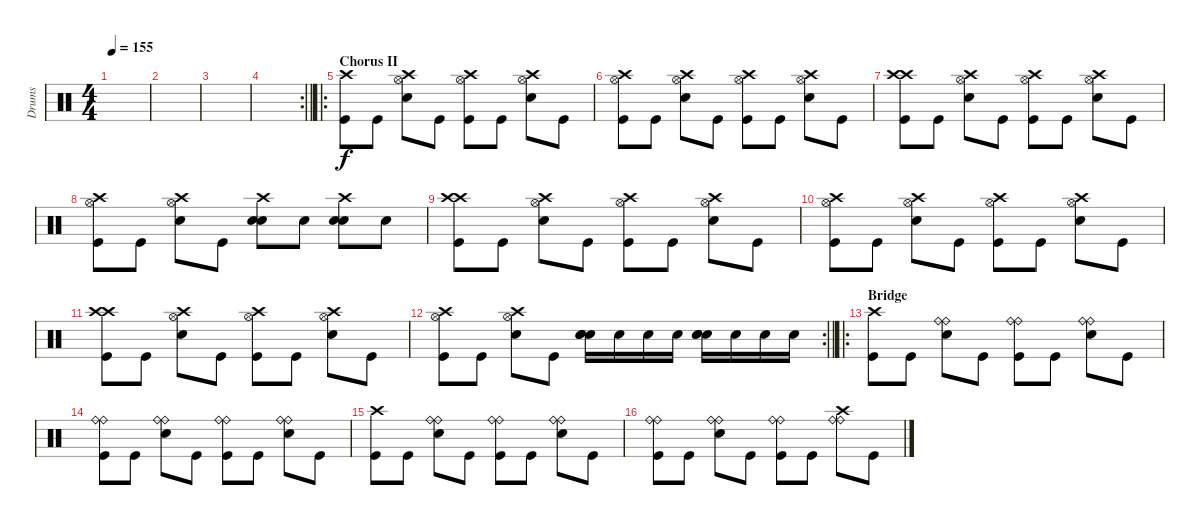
\track ("Drums" "Drums") {instrument percussion}
\staff {score}
\articulation defaults
\ts (4 4)
\tempo 155
\clef neutral
\ks c
|
|
|
\rc 2
\barLineRight lightlight
|
\ro
\section ("" "Chorus II")
("Crash high (hit)" "Kick (hit)").8 "Kick (hit)".8 ("Electric Snare (hit)" "Hi-Hat (open)" "Crash high (hit)").8 "Kick (hit)".8 ("Kick (hit)" "Hi-Hat (open)" "Crash high (hit)").8 "Kick (hit)".8 ("Electric Snare (hit)" "Hi-Hat (open)" "Crash high (hit)").8 "Kick (hit)".8 |
("Kick (hit)" "Hi-Hat (open)" "Crash high (hit)").8 "Kick (hit)".8 ("Electric Snare (hit)" "Hi-Hat (open)" "Crash high (hit)").8 "Kick (hit)".8 ("Kick (hit)" "Hi-Hat (open)" "Crash high (hit)").8 "Kick (hit)".8 ("Electric Snare (hit)" "Hi-Hat (open)" "Crash high (hit)").8 "Kick (hit)".8 |
("Crash high (hit)" "Kick (hit)" "Crash high (hit)").8 "Kick (hit)".8 ("Electric Snare (hit)" "Hi-Hat (open)" "Crash high (hit)").8 "Kick (hit)".8 ("Kick (hit)" "Hi-Hat (open)" "Crash high (hit)").8 "Kick (hit)".8 ("Electric Snare (hit)" "Hi-Hat (open)" "Crash high (hit)").8 "Kick (hit)".8 |
("Kick (hit)" "Hi-Hat (open)" "Crash high (hit)").8 "Kick (hit)".8 ("Electric Snare (hit)" "Hi-Hat (open)" "Crash high (hit)").8 "Kick (hit)".8 ("Electric Snare (hit)" "Electric Snare (hit)" "Crash high (hit)").8 "Electric Snare (hit)".8 ("Electric Snare (hit)" "Electric Snare (hit)" "Crash high (hit)").8 "Electric Snare (hit)".8 |
("Crash high (hit)" "Kick (hit)" "Crash high (hit)").8 "Kick (hit)".8 ("Electric Snare (hit)" "Hi-Hat (open)" "Crash high (hit)").8 "Kick (hit)".8 ("Kick (hit)" "Hi-Hat (open)" "Crash high (hit)").8 "Kick (hit)".8 ("Electric Snare (hit)" "Hi-Hat (open)" "Crash high (hit)").8 "Kick (hit)".8 |
("Kick (hit)" "Hi-Hat (open)" "Crash high (hit)").8 "Kick (hit)".8 ("Electric Snare (hit)" "Hi-Hat (open)" "Crash high (hit)").8 "Kick (hit)".8 ("Kick (hit)" "Hi-Hat (open)" "Crash high (hit)").8 "Kick (hit)".8 ("Electric Snare (hit)" "Hi-Hat (open)" "Crash high (hit)").8 "Kick (hit)".8 |
("Crash high (hit)" "Kick (hit)" "Crash high (hit)").8 "Kick (hit)".8 ("Electric Snare (hit)" "Hi-Hat (open)" "Crash high (hit)").8 "Kick (hit)".8 ("Kick (hit)" "Hi-Hat (open)" "Crash high (hit)").8 "Kick (hit)".8 ("Electric Snare (hit)" "Hi-Hat (open)" "Crash high (hit)").8 "Kick (hit)".8 |
\rc 2
\barLineRight lightlight
("Kick (hit)" "Hi-Hat (open)" "Crash high (hit)").8 "Kick (hit)".8 ("Electric Snare (hit)" "Hi-Hat (open)" "Crash high (hit)").8 "Kick (hit)".8 ("Snare (hit) 2" "Electric Snare (hit)" "Electric Snare (hit)").16 "Electric Snare (hit)".16 "Electric Snare (hit)".16 "Electric Snare (hit)".16 ("Snare (hit) 2" "Electric Snare (hit)" "Electric Snare (hit)").16 "Electric Snare (hit)".16 "Electric Snare (hit)".16 "Electric Snare (hit)".16 |
\ro
\section ("" "Bridge")
("Crash high (hit)" "Kick (hit)").8 "Kick (hit)".8 ("Electric Snare (hit)" "Ride (bell)" "Ride (bell)").8 "Kick (hit)".8 ("Kick (hit)" "Ride (bell)" "Ride (bell)").8 "Kick (hit)".8 ("Electric Snare (hit)" "Ride (bell)" "Ride (bell)").8 "Kick (hit)".8 |
("Kick (hit)" "Ride (bell)" "Ride (bell)").8 "Kick (hit)".8 ("Electric Snare (hit)" "Ride (bell)" "Ride (bell)").8 "Kick (hit)".8 ("Kick (hit)" "Ride (bell)" "Ride (bell)").8 "Kick (hit)".8 ("Electric Snare (hit)" "Ride (bell)" "Ride (bell)").8 "Kick (hit)".8 |
("Crash high (hit)" "Kick (hit)").8 "Kick (hit)".8 ("Electric Snare (hit)" "Ride (bell)" "Ride (bell)").8 "Kick (hit)".8 ("Kick (hit)" "Ride (bell)" "Ride (bell)").8 "Kick (hit)".8 ("Electric Snare (hit)" "Ride (bell)" "Ride (bell)").8 "Kick (hit)".8 |
("Kick (hit)" "Ride (bell)" "Ride (bell)").8 "Kick (hit)".8 ("Electric Snare (hit)" "Ride (bell)" "Ride (bell)").8 "Kick (hit)".8 ("Kick (hit)" "Ride (bell)" "Ride (bell)").8 "Kick (hit)".8 ("Crash high (hit)" "Ride (bell)" "Ride (bell)").8 "Kick (hit)".8
